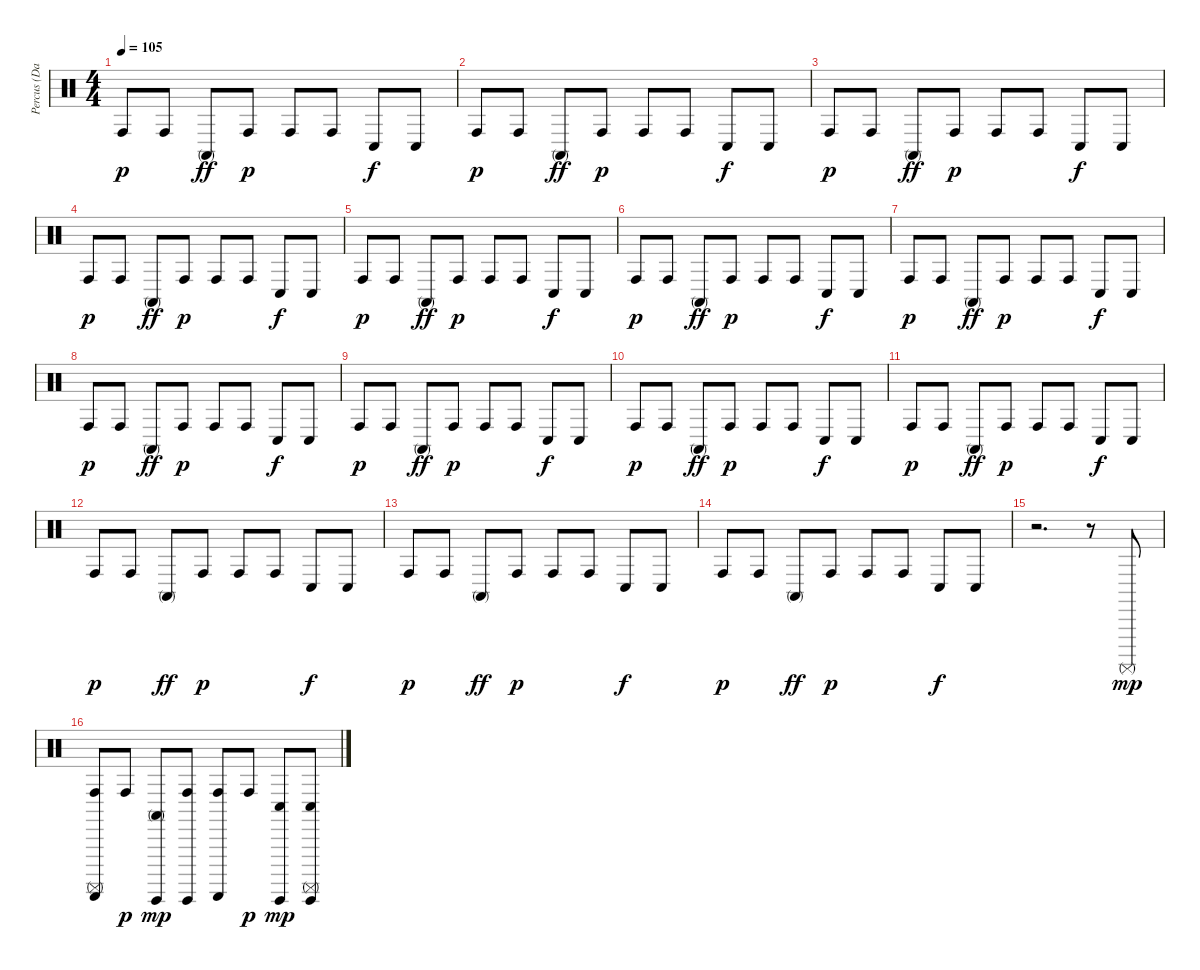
\track ("Percus (Daniel+Mali)" "Percus (Da") {instrument percussion}
\staff {score}
\articulation defaults
\ts (4 4)
\tempo 105
\clef neutral
\ks c "Conga high (hit)".8{dy p} "Conga high (hit)".8 "Conga high (mute)".8{dy ff} "Conga high (hit)".8{dy p} "Conga high (hit)".8 "Conga high (hit)".8 "Conga low (hit)".8{dy f} "Conga low (hit)".8
|
"Conga high (hit)".8{dy p} "Conga high (hit)".8 "Conga high (mute)".8{dy ff} "Conga high (hit)".8{dy p} "Conga high (hit)".8 "Conga high (hit)".8 "Conga low (hit)".8{dy f} "Conga low (hit)".8 |
"Conga high (hit)".8{dy p} "Conga high (hit)".8 "Conga high (mute)".8{dy ff} "Conga high (hit)".8{dy p} "Conga high (hit)".8 "Conga high (hit)".8 "Conga low (hit)".8{dy f} "Conga low (hit)".8 |
"Conga high (hit)".8{dy p} "Conga high (hit)".8 "Conga high (mute)".8{dy ff} "Conga high (hit)".8{dy p} "Conga high (hit)".8 "Conga high (hit)".8 "Conga low (hit)".8{dy f} "Conga low (hit)".8 |
"Conga high (hit)".8{dy p} "Conga high (hit)".8 "Conga high (mute)".8{dy ff} "Conga high (hit)".8{dy p} "Conga high (hit)".8 "Conga high (hit)".8 "Conga low (hit)".8{dy f} "Conga low (hit)".8 |
"Conga high (hit)".8{dy p} "Conga high (hit)".8 "Conga high (mute)".8{dy ff} "Conga high (hit)".8{dy p} "Conga high (hit)".8 "Conga high (hit)".8 "Conga low (hit)".8{dy f} "Conga low (hit)".8 |
"Conga high (hit)".8{dy p} "Conga high (hit)".8 "Conga high (mute)".8{dy ff} "Conga high (hit)".8{dy p} "Conga high (hit)".8 "Conga high (hit)".8 "Conga low (hit)".8{dy f} "Conga low (hit)".8 |
"Conga high (hit)".8{dy p} "Conga high (hit)".8 "Conga high (mute)".8{dy ff} "Conga high (hit)".8{dy p} "Conga high (hit)".8 "Conga high (hit)".8 "Conga low (hit)".8{dy f} "Conga low (hit)".8 |
"Conga high (hit)".8{dy p} "Conga high (hit)".8 "Conga high (mute)".8{dy ff} "Conga high (hit)".8{dy p} "Conga high (hit)".8 "Conga high (hit)".8 "Conga low (hit)".8{dy f} "Conga low (hit)".8 |
"Conga high (hit)".8{dy p} "Conga high (hit)".8 "Conga high (mute)".8{dy ff} "Conga high (hit)".8{dy p} "Conga high (hit)".8 "Conga high (hit)".8 "Conga low (hit)".8{dy f} "Conga low (hit)".8 |
"Conga high (hit)".8{dy p} "Conga high (hit)".8 "Conga high (mute)".8{dy ff} "Conga high (hit)".8{dy p} "Conga high (hit)".8 "Conga high (hit)".8 "Conga low (hit)".8{dy f} "Conga low (hit)".8 |
"Conga high (hit)".8{dy p} "Conga high (hit)".8 "Conga high (mute)".8{dy ff} "Conga high (hit)".8{dy p} "Conga high (hit)".8 "Conga high (hit)".8 "Conga low (hit)".8{dy f} "Conga low (hit)".8 |
"Conga high (hit)".8{dy p} "Conga high (hit)".8 "Conga high (mute)".8{dy ff} "Conga high (hit)".8{dy p} "Conga high (hit)".8 "Conga high (hit)".8 "Conga low (hit)".8{dy f} "Conga low (hit)".8 |
"Conga high (hit)".8{dy p} "Conga high (hit)".8 "Conga high (mute)".8{dy ff} "Conga high (hit)".8{dy p} "Conga high (hit)".8 "Conga high (hit)".8 "Conga low (hit)".8{dy f} "Conga low (hit)".8 |
r.2{d} r.8 "Surdo (mute)".8{dy mp} |
("Conga high (hit)" "Guiro (scrap-return)" "Surdo (mute)").8 "Conga high (hit)".8{dy p} ("Conga high (mute)" "Guiro (hit)").8{dy mp} ("Conga high (hit)" "Guiro (hit)").8 ("Conga high (hit)" "Guiro (scrap-return)").8 "Conga high (hit)".8{dy p} ("Conga low (hit)" "Guiro (hit)").8{dy mp} ("Conga low (hit)" "Guiro (hit)" "Surdo (mute)").8
